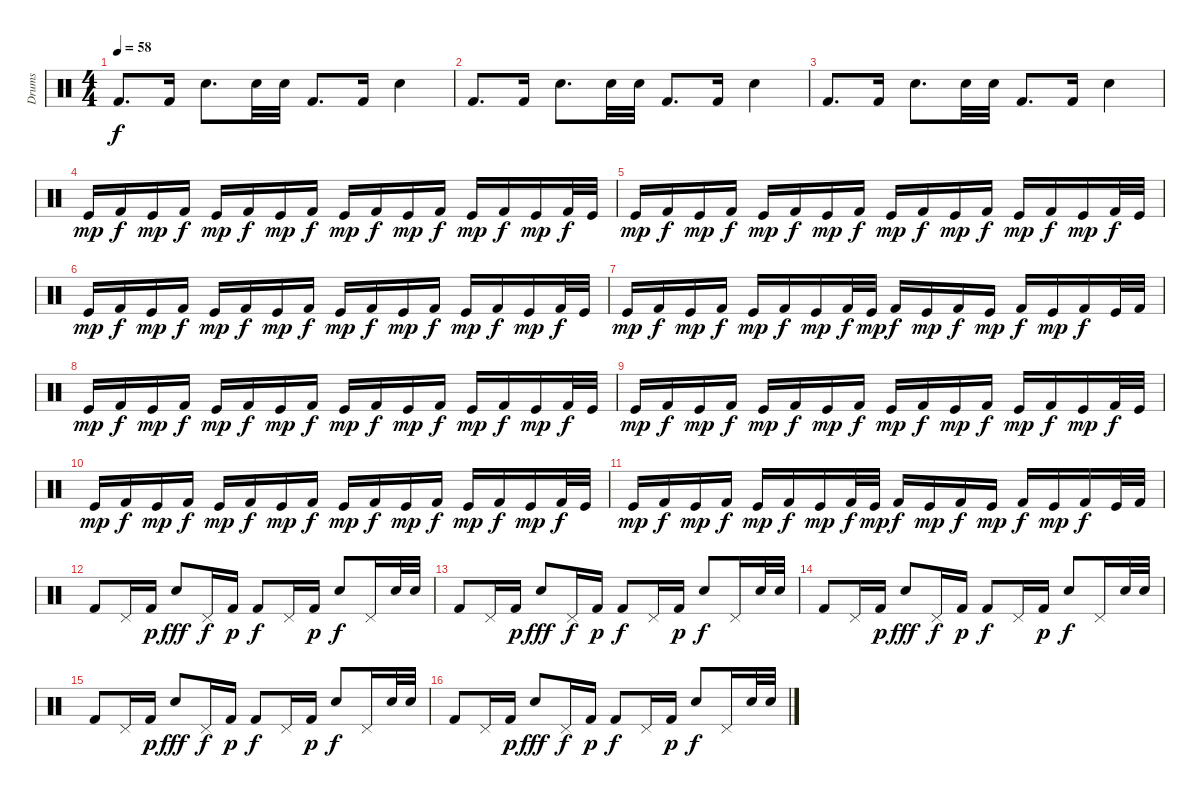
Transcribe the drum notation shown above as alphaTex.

\track ("Drums " "Drums ") {instrument percussion}
\staff {score}
\articulation defaults
\ts (4 4)
\tempo 58
\clef neutral
\ks c "Kick (hit) 2".8{d dy f} "Kick (hit) 2".16 "Electric Snare (hit)".8{d} "Electric Snare (hit)".32 "Electric Snare (hit)".32 "Kick (hit) 2".8{d} "Kick (hit) 2".16 "Electric Snare (hit)".4
|
"Kick (hit) 2".8{d} "Kick (hit) 2".16 "Electric Snare (hit)".8{d} "Electric Snare (hit)".32 "Electric Snare (hit)".32 "Kick (hit) 2".8{d} "Kick (hit) 2".16 "Electric Snare (hit)".4 |
"Kick (hit) 2".8{d} "Kick (hit) 2".16 "Electric Snare (hit)".8{d} "Electric Snare (hit)".32 "Electric Snare (hit)".32 "Kick (hit) 2".8{d} "Kick (hit) 2".16 "Electric Snare (hit)".4 |
"Kick (hit)".16{dy mp} "Kick (hit) 2".16{dy f} "Kick (hit)".16{dy mp} "Kick (hit) 2".16{dy f} "Kick (hit)".16{dy mp} "Kick (hit) 2".16{dy f} "Kick (hit)".16{dy mp} "Kick (hit) 2".16{dy f} "Kick (hit)".16{dy mp} "Kick (hit) 2".16{dy f} "Kick (hit)".16{dy mp} "Kick (hit) 2".16{dy f} "Kick (hit)".16{dy mp} "Kick (hit) 2".16{dy f} "Kick (hit)".16{dy mp} "Kick (hit) 2".32{dy f} "Kick (hit)".32 |
"Kick (hit)".16{dy mp} "Kick (hit) 2".16{dy f} "Kick (hit)".16{dy mp} "Kick (hit) 2".16{dy f} "Kick (hit)".16{dy mp} "Kick (hit) 2".16{dy f} "Kick (hit)".16{dy mp} "Kick (hit) 2".16{dy f} "Kick (hit)".16{dy mp} "Kick (hit) 2".16{dy f} "Kick (hit)".16{dy mp} "Kick (hit) 2".16{dy f} "Kick (hit)".16{dy mp} "Kick (hit) 2".16{dy f} "Kick (hit)".16{dy mp} "Kick (hit) 2".32{dy f} "Kick (hit)".32 |
"Kick (hit)".16{dy mp} "Kick (hit) 2".16{dy f} "Kick (hit)".16{dy mp} "Kick (hit) 2".16{dy f} "Kick (hit)".16{dy mp} "Kick (hit) 2".16{dy f} "Kick (hit)".16{dy mp} "Kick (hit) 2".16{dy f} "Kick (hit)".16{dy mp} "Kick (hit) 2".16{dy f} "Kick (hit)".16{dy mp} "Kick (hit) 2".16{dy f} "Kick (hit)".16{dy mp} "Kick (hit) 2".16{dy f} "Kick (hit)".16{dy mp} "Kick (hit) 2".32{dy f} "Kick (hit)".32 |
"Kick (hit)".16{dy mp} "Kick (hit) 2".16{dy f} "Kick (hit)".16{dy mp} "Kick (hit) 2".16{dy f} "Kick (hit)".16{dy mp} "Kick (hit) 2".16{dy f} "Kick (hit)".16{dy mp} "Kick (hit) 2".32{dy f} "Kick (hit)".32{dy mp} "Kick (hit) 2".16{dy f} "Kick (hit)".16{dy mp} "Kick (hit) 2".16{dy f} "Kick (hit)".16{dy mp} "Kick (hit) 2".16{dy f} "Kick (hit)".16{dy mp} "Kick (hit) 2".16{dy f} "Kick (hit)".32 "Kick (hit) 2".32 |
"Kick (hit)".16{dy mp} "Kick (hit) 2".16{dy f} "Kick (hit)".16{dy mp} "Kick (hit) 2".16{dy f} "Kick (hit)".16{dy mp} "Kick (hit) 2".16{dy f} "Kick (hit)".16{dy mp} "Kick (hit) 2".16{dy f} "Kick (hit)".16{dy mp} "Kick (hit) 2".16{dy f} "Kick (hit)".16{dy mp} "Kick (hit) 2".16{dy f} "Kick (hit)".16{dy mp} "Kick (hit) 2".16{dy f} "Kick (hit)".16{dy mp} "Kick (hit) 2".32{dy f} "Kick (hit)".32 |
"Kick (hit)".16{dy mp} "Kick (hit) 2".16{dy f} "Kick (hit)".16{dy mp} "Kick (hit) 2".16{dy f} "Kick (hit)".16{dy mp} "Kick (hit) 2".16{dy f} "Kick (hit)".16{dy mp} "Kick (hit) 2".16{dy f} "Kick (hit)".16{dy mp} "Kick (hit) 2".16{dy f} "Kick (hit)".16{dy mp} "Kick (hit) 2".16{dy f} "Kick (hit)".16{dy mp} "Kick (hit) 2".16{dy f} "Kick (hit)".16{dy mp} "Kick (hit) 2".32{dy f} "Kick (hit)".32 |
"Kick (hit)".16{dy mp} "Kick (hit) 2".16{dy f} "Kick (hit)".16{dy mp} "Kick (hit) 2".16{dy f} "Kick (hit)".16{dy mp} "Kick (hit) 2".16{dy f} "Kick (hit)".16{dy mp} "Kick (hit) 2".16{dy f} "Kick (hit)".16{dy mp} "Kick (hit) 2".16{dy f} "Kick (hit)".16{dy mp} "Kick (hit) 2".16{dy f} "Kick (hit)".16{dy mp} "Kick (hit) 2".16{dy f} "Kick (hit)".16{dy mp} "Kick (hit) 2".32{dy f} "Kick (hit)".32 |
"Kick (hit)".16{dy mp} "Kick (hit) 2".16{dy f} "Kick (hit)".16{dy mp} "Kick (hit) 2".16{dy f} "Kick (hit)".16{dy mp} "Kick (hit) 2".16{dy f} "Kick (hit)".16{dy mp} "Kick (hit) 2".32{dy f} "Kick (hit)".32{dy mp} "Kick (hit) 2".16{dy f} "Kick (hit)".16{dy mp} "Kick (hit) 2".16{dy f} "Kick (hit)".16{dy mp} "Kick (hit) 2".16{dy f} "Kick (hit)".16{dy mp} "Kick (hit) 2".16{dy f} "Kick (hit)".32 "Kick (hit) 2".32 |
"Kick (hit) 2".8 "Pedal Hi-Hat (hit)".16 "Kick (hit) 2".16{dy p} "Electric Snare (hit)".8{dy fff} "Pedal Hi-Hat (hit)".16{dy f} "Kick (hit) 2".16{dy p} "Kick (hit) 2".8{dy f} "Pedal Hi-Hat (hit)".16 "Kick (hit) 2".16{dy p} "Electric Snare (hit)".8{dy f} "Pedal Hi-Hat (hit)".16 "Electric Snare (hit)".32 "Electric Snare (hit)".32 |
"Kick (hit) 2".8 "Pedal Hi-Hat (hit)".16 "Kick (hit) 2".16{dy p} "Electric Snare (hit)".8{dy fff} "Pedal Hi-Hat (hit)".16{dy f} "Kick (hit) 2".16{dy p} "Kick (hit) 2".8{dy f} "Pedal Hi-Hat (hit)".16 "Kick (hit) 2".16{dy p} "Electric Snare (hit)".8{dy f} "Pedal Hi-Hat (hit)".16 "Electric Snare (hit)".32 "Electric Snare (hit)".32 |
"Kick (hit) 2".8 "Pedal Hi-Hat (hit)".16 "Kick (hit) 2".16{dy p} "Electric Snare (hit)".8{dy fff} "Pedal Hi-Hat (hit)".16{dy f} "Kick (hit) 2".16{dy p} "Kick (hit) 2".8{dy f} "Pedal Hi-Hat (hit)".16 "Kick (hit) 2".16{dy p} "Electric Snare (hit)".8{dy f} "Pedal Hi-Hat (hit)".16 "Electric Snare (hit)".32 "Electric Snare (hit)".32 |
"Kick (hit) 2".8 "Pedal Hi-Hat (hit)".16 "Kick (hit) 2".16{dy p} "Electric Snare (hit)".8{dy fff} "Pedal Hi-Hat (hit)".16{dy f} "Kick (hit) 2".16{dy p} "Kick (hit) 2".8{dy f} "Pedal Hi-Hat (hit)".16 "Kick (hit) 2".16{dy p} "Electric Snare (hit)".8{dy f} "Pedal Hi-Hat (hit)".16 "Electric Snare (hit)".32 "Electric Snare (hit)".32 |
"Kick (hit) 2".8 "Pedal Hi-Hat (hit)".16 "Kick (hit) 2".16{dy p} "Electric Snare (hit)".8{dy fff} "Pedal Hi-Hat (hit)".16{dy f} "Kick (hit) 2".16{dy p} "Kick (hit) 2".8{dy f} "Pedal Hi-Hat (hit)".16 "Kick (hit) 2".16{dy p} "Electric Snare (hit)".8{dy f} "Pedal Hi-Hat (hit)".16 "Electric Snare (hit)".32 "Electric Snare (hit)".32
